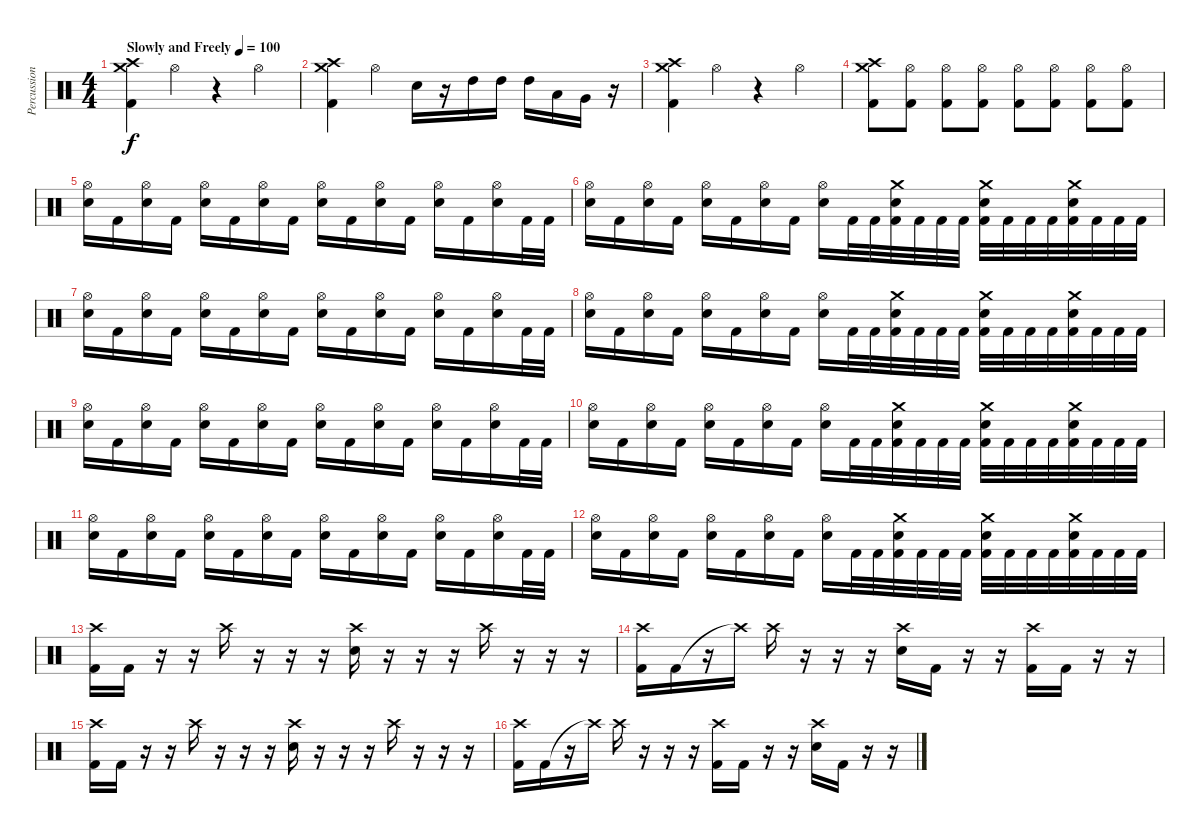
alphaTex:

\track ("Percussion" "Percussion") {instrument percussion}
\staff {score}
\articulation defaults
\ts (4 4)
\tempo (100 "Slowly and Freely")
\clef neutral
\ks c
("Crash medium (hit)" "Crash high (hit)" "Kick (hit) 2").4{dy f} "Hi-Hat (open)".4 r.4 "Hi-Hat (open)".4 |
("Crash medium (hit)" "Crash high (hit)" "Kick (hit) 2").4 "Hi-Hat (open)".4 "Snare (hit) 2".16 r.16 "High Tom (hit)".16 "High Tom (hit)".16 "High Tom (hit)".16 "Low Tom (hit)".16 "Very Low Tom (hit)".16 r.16 |
("Crash medium (hit)" "Crash high (hit)" "Kick (hit) 2").4 "Hi-Hat (open)".4 r.4 "Hi-Hat (open)".4 |
("Crash medium (hit)" "Crash high (hit)" "Kick (hit) 2").8 ("Hi-Hat (open)" "Kick (hit) 2").8 ("Hi-Hat (open)" "Kick (hit) 2").8 ("Hi-Hat (open)" "Kick (hit) 2").8 ("Hi-Hat (open)" "Kick (hit) 2").8 ("Hi-Hat (open)" "Kick (hit) 2").8 ("Hi-Hat (open)" "Kick (hit) 2").8 ("Hi-Hat (open)" "Kick (hit) 2").8 |
("Hi-Hat (open)" "Snare (hit) 2").16 "Kick (hit) 2".16 ("Hi-Hat (open)" "Snare (hit) 2").16 "Kick (hit) 2".16 ("Hi-Hat (open)" "Snare (hit) 2").16 "Kick (hit) 2".16 ("Hi-Hat (open)" "Snare (hit) 2").16 "Kick (hit) 2".16 ("Hi-Hat (open)" "Snare (hit) 2").16 "Kick (hit) 2".16 ("Hi-Hat (open)" "Snare (hit) 2").16 "Kick (hit) 2".16 ("Hi-Hat (open)" "Snare (hit) 2").16 "Kick (hit) 2".16 ("Hi-Hat (open)" "Snare (hit) 2").16 "Kick (hit) 2".32 "Kick (hit) 2".32 |
("Hi-Hat (open)" "Snare (hit) 2").16 "Kick (hit) 2".16 ("Hi-Hat (open)" "Snare (hit) 2").16 "Kick (hit) 2".16 ("Hi-Hat (open)" "Snare (hit) 2").16 "Kick (hit) 2".16 ("Hi-Hat (open)" "Snare (hit) 2").16 "Kick (hit) 2".16 ("Hi-Hat (open)" "Snare (hit) 2").16 "Kick (hit) 2".32 "Kick (hit) 2".32 ("Crash medium (hit)" "Snare (hit) 2" "Kick (hit) 2").32 "Kick (hit) 2".32 "Kick (hit) 2".32 "Kick (hit) 2".32 ("Crash medium (hit)" "Snare (hit) 2" "Kick (hit) 2").32 "Kick (hit) 2".32 "Kick (hit) 2".32 "Kick (hit) 2".32 ("Crash medium (hit)" "Snare (hit) 2" "Kick (hit) 2").32 "Kick (hit) 2".32 "Kick (hit) 2".32 "Kick (hit) 2".32 |
("Hi-Hat (open)" "Snare (hit) 2").16 "Kick (hit) 2".16 ("Hi-Hat (open)" "Snare (hit) 2").16 "Kick (hit) 2".16 ("Hi-Hat (open)" "Snare (hit) 2").16 "Kick (hit) 2".16 ("Hi-Hat (open)" "Snare (hit) 2").16 "Kick (hit) 2".16 ("Hi-Hat (open)" "Snare (hit) 2").16 "Kick (hit) 2".16 ("Hi-Hat (open)" "Snare (hit) 2").16 "Kick (hit) 2".16 ("Hi-Hat (open)" "Snare (hit) 2").16 "Kick (hit) 2".16 ("Hi-Hat (open)" "Snare (hit) 2").16 "Kick (hit) 2".32 "Kick (hit) 2".32 |
("Hi-Hat (open)" "Snare (hit) 2").16 "Kick (hit) 2".16 ("Hi-Hat (open)" "Snare (hit) 2").16 "Kick (hit) 2".16 ("Hi-Hat (open)" "Snare (hit) 2").16 "Kick (hit) 2".16 ("Hi-Hat (open)" "Snare (hit) 2").16 "Kick (hit) 2".16 ("Hi-Hat (open)" "Snare (hit) 2").16 "Kick (hit) 2".32 "Kick (hit) 2".32 ("Crash medium (hit)" "Snare (hit) 2" "Kick (hit) 2").32 "Kick (hit) 2".32 "Kick (hit) 2".32 "Kick (hit) 2".32 ("Crash medium (hit)" "Snare (hit) 2" "Kick (hit) 2").32 "Kick (hit) 2".32 "Kick (hit) 2".32 "Kick (hit) 2".32 ("Crash medium (hit)" "Snare (hit) 2" "Kick (hit) 2").32 "Kick (hit) 2".32 "Kick (hit) 2".32 "Kick (hit) 2".32 |
("Hi-Hat (open)" "Snare (hit) 2").16 "Kick (hit) 2".16 ("Hi-Hat (open)" "Snare (hit) 2").16 "Kick (hit) 2".16 ("Hi-Hat (open)" "Snare (hit) 2").16 "Kick (hit) 2".16 ("Hi-Hat (open)" "Snare (hit) 2").16 "Kick (hit) 2".16 ("Hi-Hat (open)" "Snare (hit) 2").16 "Kick (hit) 2".16 ("Hi-Hat (open)" "Snare (hit) 2").16 "Kick (hit) 2".16 ("Hi-Hat (open)" "Snare (hit) 2").16 "Kick (hit) 2".16 ("Hi-Hat (open)" "Snare (hit) 2").16 "Kick (hit) 2".32 "Kick (hit) 2".32 |
("Hi-Hat (open)" "Snare (hit) 2").16 "Kick (hit) 2".16 ("Hi-Hat (open)" "Snare (hit) 2").16 "Kick (hit) 2".16 ("Hi-Hat (open)" "Snare (hit) 2").16 "Kick (hit) 2".16 ("Hi-Hat (open)" "Snare (hit) 2").16 "Kick (hit) 2".16 ("Hi-Hat (open)" "Snare (hit) 2").16 "Kick (hit) 2".32 "Kick (hit) 2".32 ("Crash medium (hit)" "Snare (hit) 2" "Kick (hit) 2").32 "Kick (hit) 2".32 "Kick (hit) 2".32 "Kick (hit) 2".32 ("Crash medium (hit)" "Snare (hit) 2" "Kick (hit) 2").32 "Kick (hit) 2".32 "Kick (hit) 2".32 "Kick (hit) 2".32 ("Crash medium (hit)" "Snare (hit) 2" "Kick (hit) 2").32 "Kick (hit) 2".32 "Kick (hit) 2".32 "Kick (hit) 2".32 |
("Hi-Hat (open)" "Snare (hit) 2").16 "Kick (hit) 2".16 ("Hi-Hat (open)" "Snare (hit) 2").16 "Kick (hit) 2".16 ("Hi-Hat (open)" "Snare (hit) 2").16 "Kick (hit) 2".16 ("Hi-Hat (open)" "Snare (hit) 2").16 "Kick (hit) 2".16 ("Hi-Hat (open)" "Snare (hit) 2").16 "Kick (hit) 2".16 ("Hi-Hat (open)" "Snare (hit) 2").16 "Kick (hit) 2".16 ("Hi-Hat (open)" "Snare (hit) 2").16 "Kick (hit) 2".16 ("Hi-Hat (open)" "Snare (hit) 2").16 "Kick (hit) 2".32 "Kick (hit) 2".32 |
("Hi-Hat (open)" "Snare (hit) 2").16 "Kick (hit) 2".16 ("Hi-Hat (open)" "Snare (hit) 2").16 "Kick (hit) 2".16 ("Hi-Hat (open)" "Snare (hit) 2").16 "Kick (hit) 2".16 ("Hi-Hat (open)" "Snare (hit) 2").16 "Kick (hit) 2".16 ("Hi-Hat (open)" "Snare (hit) 2").16 "Kick (hit) 2".32 "Kick (hit) 2".32 ("Crash medium (hit)" "Snare (hit) 2" "Kick (hit) 2").32 "Kick (hit) 2".32 "Kick (hit) 2".32 "Kick (hit) 2".32 ("Crash medium (hit)" "Snare (hit) 2" "Kick (hit) 2").32 "Kick (hit) 2".32 "Kick (hit) 2".32 "Kick (hit) 2".32 ("Crash medium (hit)" "Snare (hit) 2" "Kick (hit) 2").32 "Kick (hit) 2".32 "Kick (hit) 2".32 "Kick (hit) 2".32 |
("Crash high (hit)" "Kick (hit) 2").16 "Kick (hit) 2".16 r.16 r.16 "Crash high (hit)".16 r.16 r.16 r.16 ("Crash high (hit)" "Snare (hit) 2").16 r.16 r.16 r.16 "Crash high (hit)".16 r.16 r.16 r.16 |
("Crash high (hit)" "Kick (hit) 2").16 "Kick (hit) 2".16 r.16 "Crash high (hit)"{t}.16 "Crash high (hit)".16 r.16 r.16 r.16 ("Crash high (hit)" "Snare (hit) 2").16 "Kick (hit) 2".16 r.16 r.16 ("Crash high (hit)" "Kick (hit) 2").16 "Kick (hit) 2".16 r.16 r.16 |
("Crash high (hit)" "Kick (hit) 2").16 "Kick (hit) 2".16 r.16 r.16 "Crash high (hit)".16 r.16 r.16 r.16 ("Crash high (hit)" "Snare (hit) 2").16 r.16 r.16 r.16 "Crash high (hit)".16 r.16 r.16 r.16 |
("Crash high (hit)" "Kick (hit) 2").16 "Kick (hit) 2".16 r.16 "Crash high (hit)"{t}.16 "Crash high (hit)".16 r.16 r.16 r.16 ("Crash high (hit)" "Kick (hit) 2").16 "Kick (hit) 2".16 r.16 r.16 ("Crash high (hit)" "Snare (hit) 2").16 "Kick (hit) 2".16 r.16 r.16
